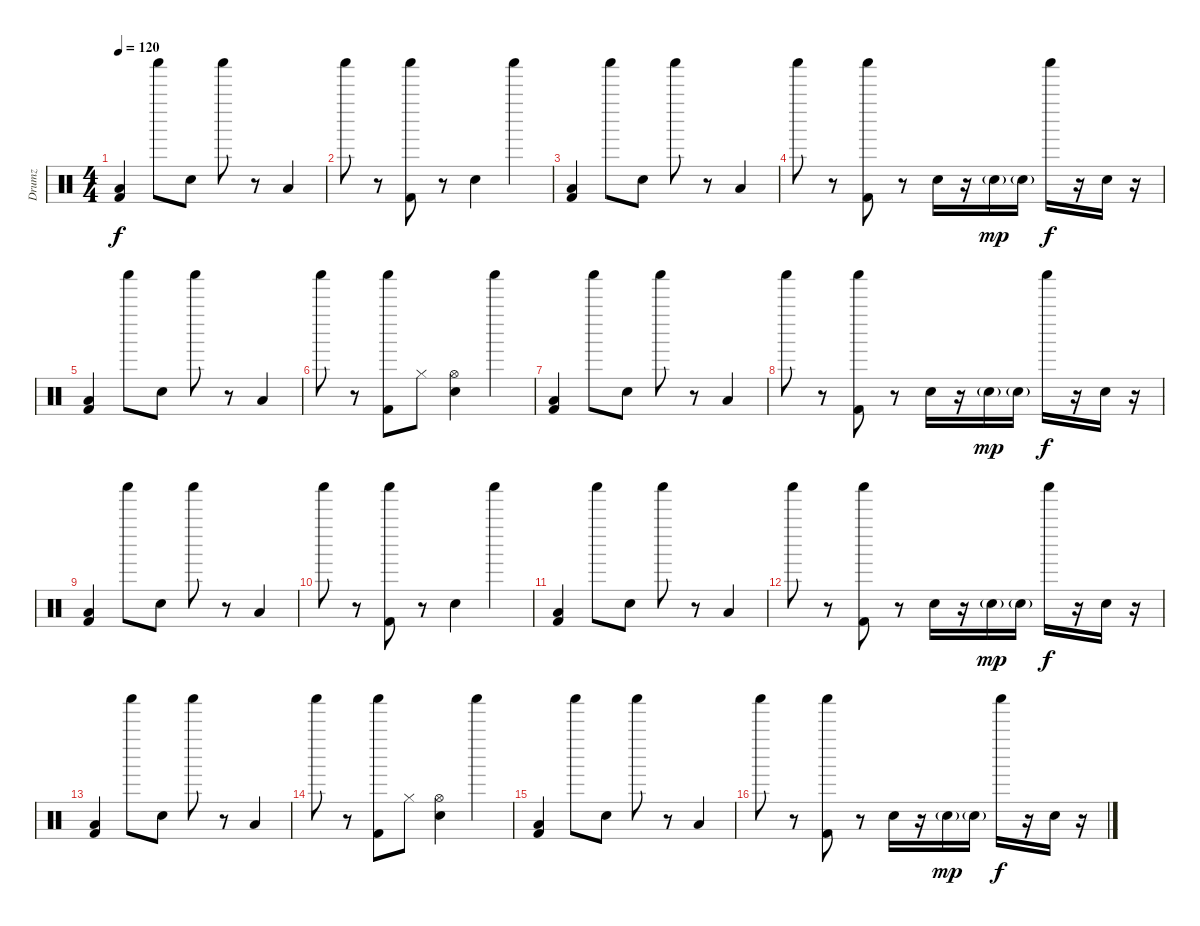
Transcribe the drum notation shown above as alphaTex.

\track ("Drumz" "Drumz") {instrument percussion}
\staff {score}
\articulation defaults
\ts (4 4)
\tempo 120
\clef neutral
\ks c
("Low Tom (hit)" "Kick (hit) 2").4{dy f} "Shaker (hit)".8 "Electric Snare (hit)".8 "Shaker (hit)".8 r.8 "Low Tom (hit)".4 |
"Shaker (hit)".8 r.8 ("Kick (hit) 2" "Shaker (hit)").8 r.8 "Electric Snare (hit)".4 "Shaker (hit)".4 |
("Low Tom (hit)" "Kick (hit) 2").4 "Shaker (hit)".8 "Electric Snare (hit)".8 "Shaker (hit)".8 r.8 "Low Tom (hit)".4 |
"Shaker (hit)".8 r.8 ("Kick (hit) 2" "Shaker (hit)").8 r.8 "Electric Snare (hit)".16 r.16 "Electric Snare (hit)"{g}.16{dy mp} "Electric Snare (hit)"{g}.16 "Shaker (hit)".16{dy f} r.16 "Electric Snare (hit)".16 r.16 |
("Low Tom (hit)" "Kick (hit) 2").4 "Shaker (hit)".8 "Electric Snare (hit)".8 "Shaker (hit)".8 r.8 "Low Tom (hit)".4 |
"Shaker (hit)".8 r.8 ("Kick (hit) 2" "Shaker (hit)").8 "Hi-Hat (closed)".8 ("Hi-Hat (open)" "Electric Snare (hit)").4 "Shaker (hit)".4 |
("Low Tom (hit)" "Kick (hit) 2").4 "Shaker (hit)".8 "Electric Snare (hit)".8 "Shaker (hit)".8 r.8 "Low Tom (hit)".4 |
"Shaker (hit)".8 r.8 ("Kick (hit) 2" "Shaker (hit)").8 r.8 "Electric Snare (hit)".16 r.16 "Electric Snare (hit)"{g}.16{dy mp} "Electric Snare (hit)"{g}.16 "Shaker (hit)".16{dy f} r.16 "Electric Snare (hit)".16 r.16 |
("Low Tom (hit)" "Kick (hit) 2").4 "Shaker (hit)".8 "Electric Snare (hit)".8 "Shaker (hit)".8 r.8 "Low Tom (hit)".4 |
"Shaker (hit)".8 r.8 ("Kick (hit) 2" "Shaker (hit)").8 r.8 "Electric Snare (hit)".4 "Shaker (hit)".4 |
("Low Tom (hit)" "Kick (hit) 2").4 "Shaker (hit)".8 "Electric Snare (hit)".8 "Shaker (hit)".8 r.8 "Low Tom (hit)".4 |
"Shaker (hit)".8 r.8 ("Kick (hit) 2" "Shaker (hit)").8 r.8 "Electric Snare (hit)".16 r.16 "Electric Snare (hit)"{g}.16{dy mp} "Electric Snare (hit)"{g}.16 "Shaker (hit)".16{dy f} r.16 "Electric Snare (hit)".16 r.16 |
("Low Tom (hit)" "Kick (hit) 2").4 "Shaker (hit)".8 "Electric Snare (hit)".8 "Shaker (hit)".8 r.8 "Low Tom (hit)".4 |
"Shaker (hit)".8 r.8 ("Kick (hit) 2" "Shaker (hit)").8 "Hi-Hat (closed)".8 ("Hi-Hat (open)" "Electric Snare (hit)").4 "Shaker (hit)".4 |
("Low Tom (hit)" "Kick (hit) 2").4 "Shaker (hit)".8 "Electric Snare (hit)".8 "Shaker (hit)".8 r.8 "Low Tom (hit)".4 |
"Shaker (hit)".8 r.8 ("Kick (hit) 2" "Shaker (hit)").8 r.8 "Electric Snare (hit)".16 r.16 "Electric Snare (hit)"{g}.16{dy mp} "Electric Snare (hit)"{g}.16 "Shaker (hit)".16{dy f} r.16 "Electric Snare (hit)".16 r.16
